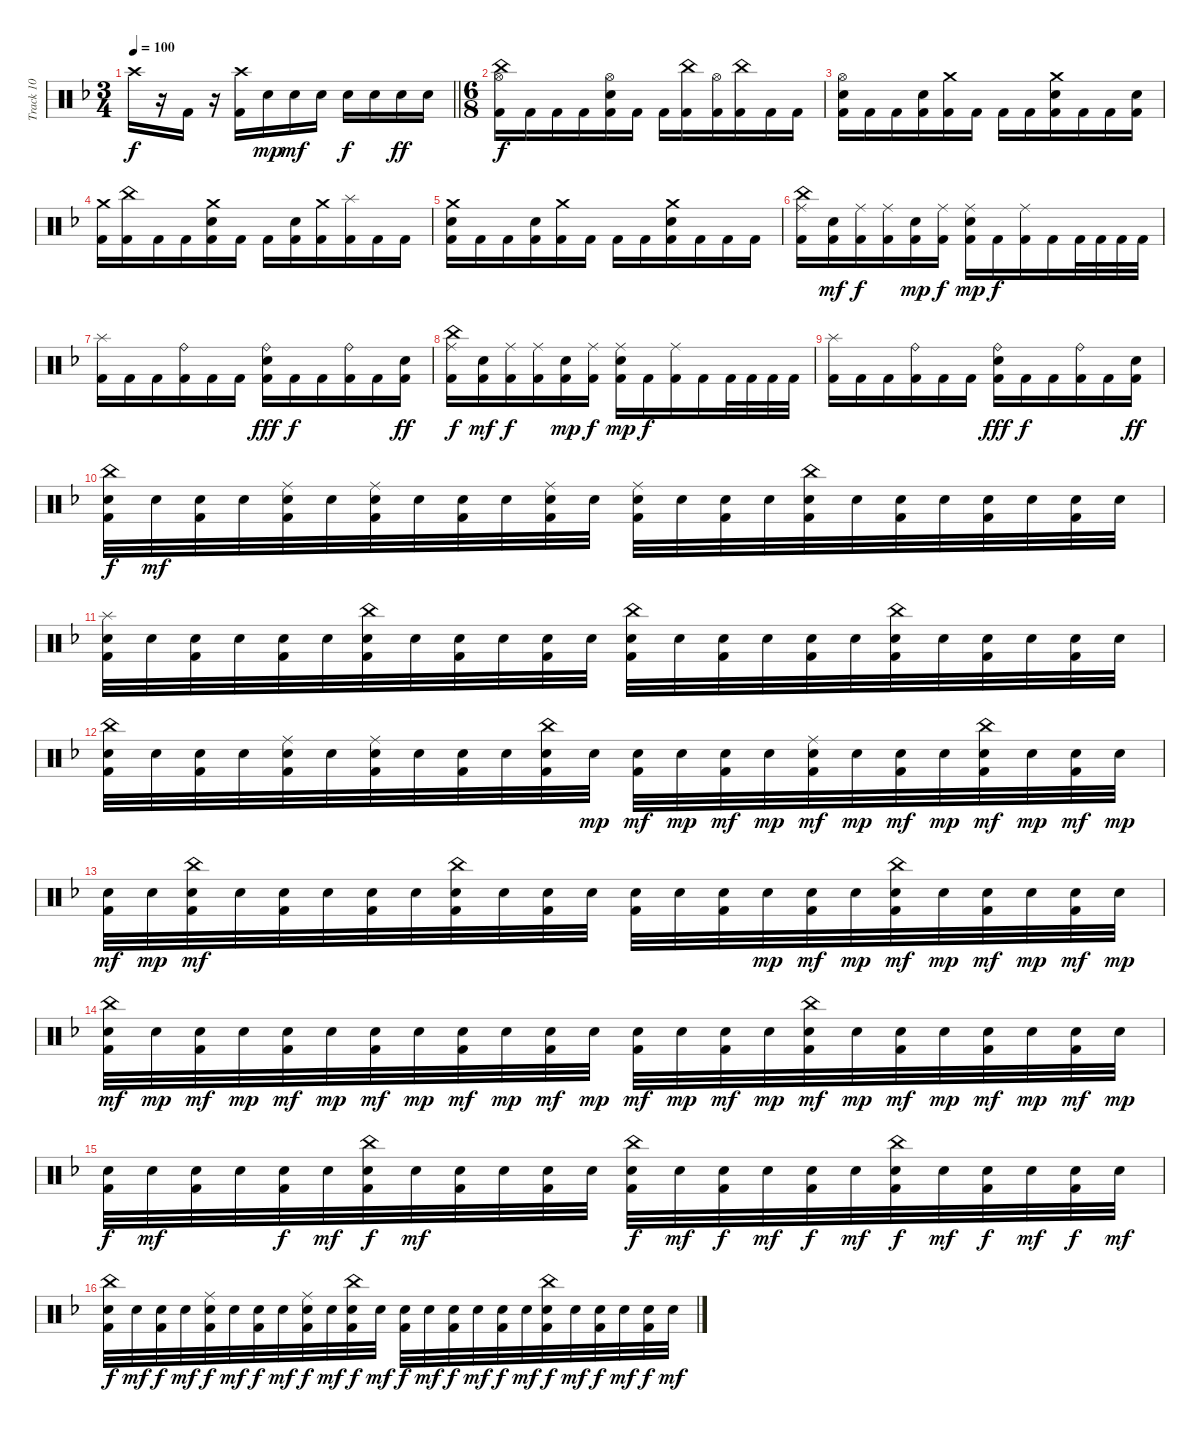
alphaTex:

\track ("Track 10" "Track 10") {instrument percussion}
\staff {score}
\articulation defaults
\ts (3 4)
\tempo 100
\clef neutral
\barLineRight lightlight
\ks f "Crash high (hit)".16{dy f}
r.16 "Kick (hit) 2".16 r.16 ("Kick (hit) 2" "Crash high (hit)").16 "Snare (hit) 2".16{dy mp} "Snare (hit) 2".16{dy mf} "Snare (hit) 2".16 "Snare (hit) 2".16{dy f} "Snare (hit) 2".16 "Snare (hit) 2".16{dy ff} "Snare (hit) 2".16 |
\ts (6 8)
("Kick (hit) 2" "Hi-Hat (open)" "China (hit)").16{dy f} "Kick (hit) 2".16 "Kick (hit) 2".16 "Kick (hit) 2".16 ("Kick (hit) 2" "Snare (hit) 2" "Hi-Hat (open)").16 "Kick (hit) 2".16 "Kick (hit) 2".16 ("Kick (hit) 2" "China (hit)").16 ("Kick (hit) 2" "Hi-Hat (open)").16 ("Kick (hit) 2" "China (hit)").16 "Kick (hit) 2".16 "Kick (hit) 2".16 |
("Kick (hit) 2" "Snare (hit) 2" "Hi-Hat (open)").16 "Kick (hit) 2".16 "Kick (hit) 2".16 ("Kick (hit) 2" "Snare (hit) 2").16 ("Kick (hit) 2" "Crash medium (hit)").16 "Kick (hit) 2".16 "Kick (hit) 2".16 "Kick (hit) 2".16 ("Kick (hit) 2" "Snare (hit) 2" "Crash medium (hit)").16 "Kick (hit) 2".16 "Kick (hit) 2".16 ("Kick (hit) 2" "Snare (hit) 2").16 |
("Kick (hit) 2" "Crash medium (hit)").16 ("Kick (hit) 2" "China (hit)").16 "Kick (hit) 2".16 "Kick (hit) 2".16 ("Kick (hit) 2" "Snare (hit) 2" "Crash medium (hit)").16 "Kick (hit) 2".16 "Kick (hit) 2".16 ("Kick (hit) 2" "Snare (hit) 2").16 ("Kick (hit) 2" "Crash medium (hit)").16 ("Kick (hit) 2" "Splash (hit)").16 "Kick (hit) 2".16 "Kick (hit) 2".16 |
("Kick (hit) 2" "Snare (hit) 2" "Crash medium (hit)").16 "Kick (hit) 2".16 "Kick (hit) 2".16 ("Kick (hit) 2" "Snare (hit) 2").16 ("Kick (hit) 2" "Crash medium (hit)").16 "Kick (hit) 2".16 "Kick (hit) 2".16 "Kick (hit) 2".16 ("Kick (hit) 2" "Snare (hit) 2" "Crash medium (hit)").16 "Kick (hit) 2".16 "Kick (hit) 2".16 "Kick (hit) 2".16 |
("Kick (hit) 2" "Ride (middle)" "China (hit)").16 ("Kick (hit) 2" "Snare (hit) 2").16{dy mf} ("Kick (hit) 2" "Ride (middle)").16{dy f} ("Kick (hit) 2" "Ride (middle)").16 ("Kick (hit) 2" "Snare (hit) 2").16{dy mp} ("Kick (hit) 2" "Ride (middle)").16{dy f} ("Kick (hit) 2" "Snare (hit) 2" "Ride (middle)").16{dy mp} "Kick (hit) 2".16{dy f} ("Kick (hit) 2" "Ride (middle)").16 "Kick (hit) 2".16 "Kick (hit) 2".32 "Kick (hit) 2".32 "Kick (hit) 2".32 "Kick (hit) 2".32 |
("Kick (hit) 2" "Splash (hit)").16 "Kick (hit) 2".16 "Kick (hit) 2".16 ("Kick (hit) 2" "Ride (bell)").16 "Kick (hit) 2".16 "Kick (hit) 2".16 ("Kick (hit) 2" "Snare (hit) 2" "Ride (bell)").16{dy fff} "Kick (hit) 2".16{dy f} "Kick (hit) 2".16 ("Kick (hit) 2" "Ride (bell)").16 "Kick (hit) 2".16 ("Kick (hit) 2" "Snare (hit) 2").16{dy ff} |
("Kick (hit) 2" "Ride (middle)" "China (hit)").16{dy f} ("Kick (hit) 2" "Snare (hit) 2").16{dy mf} ("Kick (hit) 2" "Ride (middle)").16{dy f} ("Kick (hit) 2" "Ride (middle)").16 ("Kick (hit) 2" "Snare (hit) 2").16{dy mp} ("Kick (hit) 2" "Ride (middle)").16{dy f} ("Kick (hit) 2" "Snare (hit) 2" "Ride (middle)").16{dy mp} "Kick (hit) 2".16{dy f} ("Kick (hit) 2" "Ride (middle)").16 "Kick (hit) 2".16 "Kick (hit) 2".32 "Kick (hit) 2".32 "Kick (hit) 2".32 "Kick (hit) 2".32 |
("Kick (hit) 2" "Splash (hit)").16 "Kick (hit) 2".16 "Kick (hit) 2".16 ("Kick (hit) 2" "Ride (bell)").16 "Kick (hit) 2".16 "Kick (hit) 2".16 ("Kick (hit) 2" "Snare (hit) 2" "Ride (bell)").16{dy fff} "Kick (hit) 2".16{dy f} "Kick (hit) 2".16 ("Kick (hit) 2" "Ride (bell)").16 "Kick (hit) 2".16 ("Kick (hit) 2" "Snare (hit) 2").16{dy ff} |
("Kick (hit) 2" "Snare (hit) 2" "China (hit)").32{dy f} "Snare (hit) 2".32{dy mf} ("Kick (hit) 2" "Snare (hit) 2").32 "Snare (hit) 2".32 ("Kick (hit) 2" "Snare (hit) 2" "Ride (middle)").32 "Snare (hit) 2".32 ("Kick (hit) 2" "Snare (hit) 2" "Ride (middle)").32 "Snare (hit) 2".32 ("Kick (hit) 2" "Snare (hit) 2").32 "Snare (hit) 2".32 ("Kick (hit) 2" "Snare (hit) 2" "Ride (middle)").32 "Snare (hit) 2".32 ("Kick (hit) 2" "Snare (hit) 2" "Ride (middle)").32 "Snare (hit) 2".32 ("Kick (hit) 2" "Snare (hit) 2").32 "Snare (hit) 2".32 ("Kick (hit) 2" "Snare (hit) 2" "China (hit)").32 "Snare (hit) 2".32 ("Kick (hit) 2" "Snare (hit) 2").32 "Snare (hit) 2".32 ("Kick (hit) 2" "Snare (hit) 2").32 "Snare (hit) 2".32 ("Kick (hit) 2" "Snare (hit) 2").32 "Snare (hit) 2".32 |
("Kick (hit) 2" "Snare (hit) 2" "Splash (hit)").32 "Snare (hit) 2".32 ("Kick (hit) 2" "Snare (hit) 2").32 "Snare (hit) 2".32 ("Kick (hit) 2" "Snare (hit) 2").32 "Snare (hit) 2".32 ("Kick (hit) 2" "Snare (hit) 2" "China (hit)").32 "Snare (hit) 2".32 ("Kick (hit) 2" "Snare (hit) 2").32 "Snare (hit) 2".32 ("Kick (hit) 2" "Snare (hit) 2").32 "Snare (hit) 2".32 ("Kick (hit) 2" "Snare (hit) 2" "China (hit)").32 "Snare (hit) 2".32 ("Kick (hit) 2" "Snare (hit) 2").32 "Snare (hit) 2".32 ("Kick (hit) 2" "Snare (hit) 2").32 "Snare (hit) 2".32 ("Kick (hit) 2" "Snare (hit) 2" "China (hit)").32 "Snare (hit) 2".32 ("Kick (hit) 2" "Snare (hit) 2").32 "Snare (hit) 2".32 ("Kick (hit) 2" "Snare (hit) 2").32 "Snare (hit) 2".32 |
("Kick (hit) 2" "Snare (hit) 2" "China (hit)").32 "Snare (hit) 2".32 ("Kick (hit) 2" "Snare (hit) 2").32 "Snare (hit) 2".32 ("Kick (hit) 2" "Snare (hit) 2" "Ride (middle)").32 "Snare (hit) 2".32 ("Kick (hit) 2" "Snare (hit) 2" "Ride (middle)").32 "Snare (hit) 2".32 ("Kick (hit) 2" "Snare (hit) 2").32 "Snare (hit) 2".32 ("Kick (hit) 2" "Snare (hit) 2" "China (hit)").32 "Snare (hit) 2".32{dy mp} ("Kick (hit) 2" "Snare (hit) 2").32{dy mf} "Snare (hit) 2".32{dy mp} ("Kick (hit) 2" "Snare (hit) 2").32{dy mf} "Snare (hit) 2".32{dy mp} ("Kick (hit) 2" "Snare (hit) 2" "Ride (middle)").32{dy mf} "Snare (hit) 2".32{dy mp} ("Kick (hit) 2" "Snare (hit) 2").32{dy mf} "Snare (hit) 2".32{dy mp} ("Kick (hit) 2" "Snare (hit) 2" "China (hit)").32{dy mf} "Snare (hit) 2".32{dy mp} ("Kick (hit) 2" "Snare (hit) 2").32{dy mf} "Snare (hit) 2".32{dy mp} |
("Kick (hit) 2" "Snare (hit) 2").32{dy mf} "Snare (hit) 2".32{dy mp} ("Kick (hit) 2" "Snare (hit) 2" "China (hit)").32{dy mf} "Snare (hit) 2".32 ("Kick (hit) 2" "Snare (hit) 2").32 "Snare (hit) 2".32 ("Kick (hit) 2" "Snare (hit) 2").32 "Snare (hit) 2".32 ("Kick (hit) 2" "Snare (hit) 2" "China (hit)").32 "Snare (hit) 2".32 ("Kick (hit) 2" "Snare (hit) 2").32 "Snare (hit) 2".32 ("Kick (hit) 2" "Snare (hit) 2").32 "Snare (hit) 2".32 ("Kick (hit) 2" "Snare (hit) 2").32 "Snare (hit) 2".32{dy mp} ("Kick (hit) 2" "Snare (hit) 2").32{dy mf} "Snare (hit) 2".32{dy mp} ("Kick (hit) 2" "Snare (hit) 2" "China (hit)").32{dy mf} "Snare (hit) 2".32{dy mp} ("Kick (hit) 2" "Snare (hit) 2").32{dy mf} "Snare (hit) 2".32{dy mp} ("Kick (hit) 2" "Snare (hit) 2").32{dy mf} "Snare (hit) 2".32{dy mp} |
("Kick (hit) 2" "Snare (hit) 2" "China (hit)").32{dy mf} "Snare (hit) 2".32{dy mp} ("Kick (hit) 2" "Snare (hit) 2").32{dy mf} "Snare (hit) 2".32{dy mp} ("Kick (hit) 2" "Snare (hit) 2").32{dy mf} "Snare (hit) 2".32{dy mp} ("Kick (hit) 2" "Snare (hit) 2").32{dy mf} "Snare (hit) 2".32{dy mp} ("Kick (hit) 2" "Snare (hit) 2").32{dy mf} "Snare (hit) 2".32{dy mp} ("Kick (hit) 2" "Snare (hit) 2").32{dy mf} "Snare (hit) 2".32{dy mp} ("Kick (hit) 2" "Snare (hit) 2").32{dy mf} "Snare (hit) 2".32{dy mp} ("Kick (hit) 2" "Snare (hit) 2").32{dy mf} "Snare (hit) 2".32{dy mp} ("Kick (hit) 2" "Snare (hit) 2" "China (hit)").32{dy mf} "Snare (hit) 2".32{dy mp} ("Kick (hit) 2" "Snare (hit) 2").32{dy mf} "Snare (hit) 2".32{dy mp} ("Kick (hit) 2" "Snare (hit) 2").32{dy mf} "Snare (hit) 2".32{dy mp} ("Kick (hit) 2" "Snare (hit) 2").32{dy mf} "Snare (hit) 2".32{dy mp} |
("Kick (hit) 2" "Snare (hit) 2").32{dy f} "Snare (hit) 2".32{dy mf} ("Kick (hit) 2" "Snare (hit) 2").32 "Snare (hit) 2".32 ("Kick (hit) 2" "Snare (hit) 2").32{dy f} "Snare (hit) 2".32{dy mf} ("Kick (hit) 2" "Snare (hit) 2" "China (hit)").32{dy f} "Snare (hit) 2".32{dy mf} ("Kick (hit) 2" "Snare (hit) 2").32 "Snare (hit) 2".32 ("Kick (hit) 2" "Snare (hit) 2").32 "Snare (hit) 2".32 ("Kick (hit) 2" "Snare (hit) 2" "China (hit)").32{dy f} "Snare (hit) 2".32{dy mf} ("Kick (hit) 2" "Snare (hit) 2").32{dy f} "Snare (hit) 2".32{dy mf} ("Kick (hit) 2" "Snare (hit) 2").32{dy f} "Snare (hit) 2".32{dy mf} ("Kick (hit) 2" "Snare (hit) 2" "China (hit)").32{dy f} "Snare (hit) 2".32{dy mf} ("Kick (hit) 2" "Snare (hit) 2").32{dy f} "Snare (hit) 2".32{dy mf} ("Kick (hit) 2" "Snare (hit) 2").32{dy f} "Snare (hit) 2".32{dy mf} |
("Kick (hit) 2" "Snare (hit) 2" "China (hit)").32{dy f} "Snare (hit) 2".32{dy mf} ("Kick (hit) 2" "Snare (hit) 2").32{dy f} "Snare (hit) 2".32{dy mf} ("Kick (hit) 2" "Snare (hit) 2" "Ride (middle)").32{dy f} "Snare (hit) 2".32{dy mf} ("Kick (hit) 2" "Snare (hit) 2").32{dy f} "Snare (hit) 2".32{dy mf} ("Kick (hit) 2" "Snare (hit) 2" "Ride (middle)").32{dy f} "Snare (hit) 2".32{dy mf} ("Kick (hit) 2" "Snare (hit) 2" "China (hit)").32{dy f} "Snare (hit) 2".32{dy mf} ("Kick (hit) 2" "Snare (hit) 2").32{dy f} "Snare (hit) 2".32{dy mf} ("Kick (hit) 2" "Snare (hit) 2").32{dy f} "Snare (hit) 2".32{dy mf} ("Kick (hit) 2" "Snare (hit) 2").32{dy f} "Snare (hit) 2".32{dy mf} ("Kick (hit) 2" "Snare (hit) 2" "China (hit)").32{dy f} "Snare (hit) 2".32{dy mf} ("Kick (hit) 2" "Snare (hit) 2").32{dy f} "Snare (hit) 2".32{dy mf} ("Kick (hit) 2" "Snare (hit) 2").32{dy f} "Snare (hit) 2".32{dy mf}
